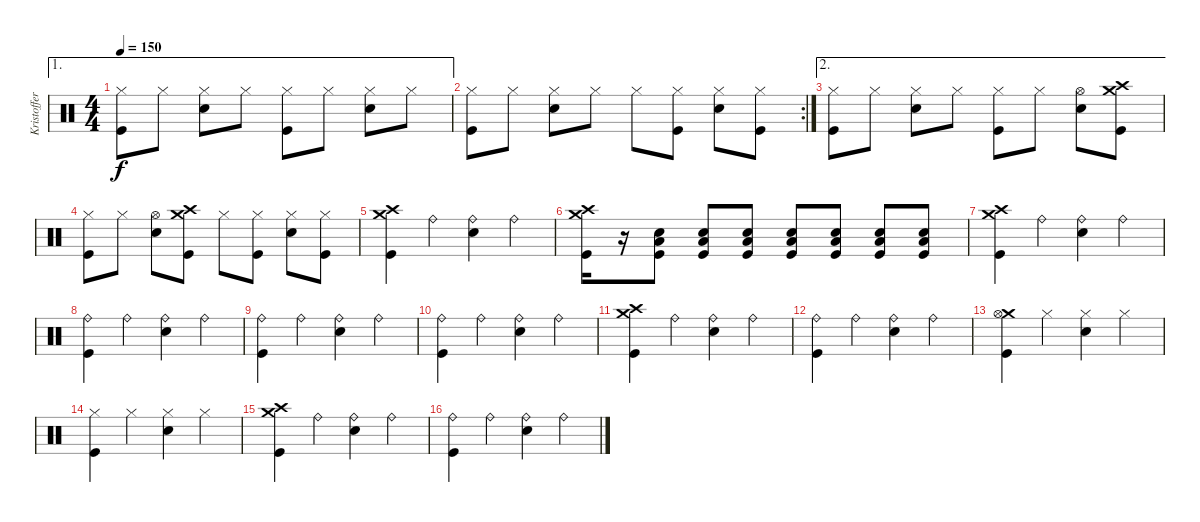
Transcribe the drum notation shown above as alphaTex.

\track ("Kristoffer Söderström - Drums" "Kristoffer") {instrument percussion}
\staff {score}
\articulation defaults
\ae 1
\ts (4 4)
\tempo 150
\clef neutral
\ks c
("Hi-Hat (closed)" "Kick (hit)").8{dy f} "Hi-Hat (closed)".8 ("Hi-Hat (closed)" "Snare (hit) 2").8 "Hi-Hat (closed)".8 ("Hi-Hat (closed)" "Kick (hit)").8 "Hi-Hat (closed)".8 ("Hi-Hat (closed)" "Snare (hit) 2").8 "Hi-Hat (closed)".8 |
\rc 2
("Hi-Hat (closed)" "Kick (hit)").8 "Hi-Hat (closed)".8 ("Hi-Hat (closed)" "Snare (hit) 2").8 "Hi-Hat (closed)".8 "Hi-Hat (closed)".8 ("Hi-Hat (closed)" "Kick (hit)").8 ("Hi-Hat (closed)" "Snare (hit) 2").8 ("Hi-Hat (closed)" "Kick (hit)").8 |
\ae 2
("Hi-Hat (closed)" "Kick (hit)").8 "Hi-Hat (closed)".8 ("Hi-Hat (closed)" "Snare (hit) 2").8 "Hi-Hat (closed)".8 ("Hi-Hat (closed)" "Kick (hit)").8 "Hi-Hat (closed)".8 ("Hi-Hat (open)" "Snare (hit) 2").8 ("Crash high (hit)" "Crash medium (hit)" "Kick (hit)").8 |
("Hi-Hat (closed)" "Kick (hit)").8 "Hi-Hat (closed)".8 ("Hi-Hat (open)" "Snare (hit) 2").8 ("Crash medium (hit)" "Crash high (hit)" "Kick (hit)").8 "Hi-Hat (closed)".8 ("Hi-Hat (closed)" "Kick (hit)").8 ("Hi-Hat (closed)" "Snare (hit) 2").8 ("Hi-Hat (closed)" "Kick (hit)").8 |
("Crash medium (hit)" "Crash high (hit)" "Kick (hit)").4 "Ride (bell)".4 ("Ride (bell)" "Snare (hit) 2").4 "Ride (bell)".4 |
("Crash medium (hit)" "Crash high (hit)" "Kick (hit)").16 r.16{volume 6} ("Snare (hit) 2" "Low Tom (hit)" "Kick (hit)").8{volume 13} ("Snare (hit) 2" "Low Tom (hit)" "Kick (hit)").8 ("Snare (hit) 2" "Low Tom (hit)" "Kick (hit)").8 ("Snare (hit) 2" "Low Tom (hit)" "Kick (hit)").8 ("Snare (hit) 2" "Low Tom (hit)" "Kick (hit)").8 ("Snare (hit) 2" "Low Tom (hit)" "Kick (hit)").8 ("Snare (hit) 2" "Low Tom (hit)" "Kick (hit)").8 |
("Crash medium (hit)" "Crash high (hit)" "Kick (hit)").4 "Ride (bell)".4 ("Ride (bell)" "Snare (hit) 2").4 "Ride (bell)".4 |
("Ride (bell)" "Kick (hit)").4 "Ride (bell)".4 ("Ride (bell)" "Snare (hit) 2").4 "Ride (bell)".4 |
("Ride (bell)" "Kick (hit)").4 "Ride (bell)".4 ("Ride (bell)" "Snare (hit) 2").4 "Ride (bell)".4 |
("Ride (bell)" "Kick (hit)").4 "Ride (bell)".4 ("Ride (bell)" "Snare (hit) 2").4 "Ride (bell)".4 |
("Crash medium (hit)" "Crash high (hit)" "Kick (hit)").4 "Ride (bell)".4 ("Ride (bell)" "Snare (hit) 2").4 "Ride (bell)".4 |
("Ride (bell)" "Kick (hit)").4 "Ride (bell)".4 ("Ride (bell)" "Snare (hit) 2").4 "Ride (bell)".4 |
("Crash medium (hit)" "Hi-Hat (open)" "Kick (hit)").4 "Hi-Hat (closed)".4 ("Hi-Hat (closed)" "Snare (hit) 2").4 "Hi-Hat (closed)".4 |
("Hi-Hat (closed)" "Kick (hit)").4 "Hi-Hat (closed)".4 ("Hi-Hat (closed)" "Snare (hit) 2").4 "Hi-Hat (closed)".4 |
("Crash medium (hit)" "Crash high (hit)" "Kick (hit)").4 "Ride (bell)".4 ("Ride (bell)" "Snare (hit) 2").4 "Ride (bell)".4 |
("Ride (bell)" "Kick (hit)").4 "Ride (bell)".4 ("Ride (bell)" "Snare (hit) 2").4 "Ride (bell)".4
